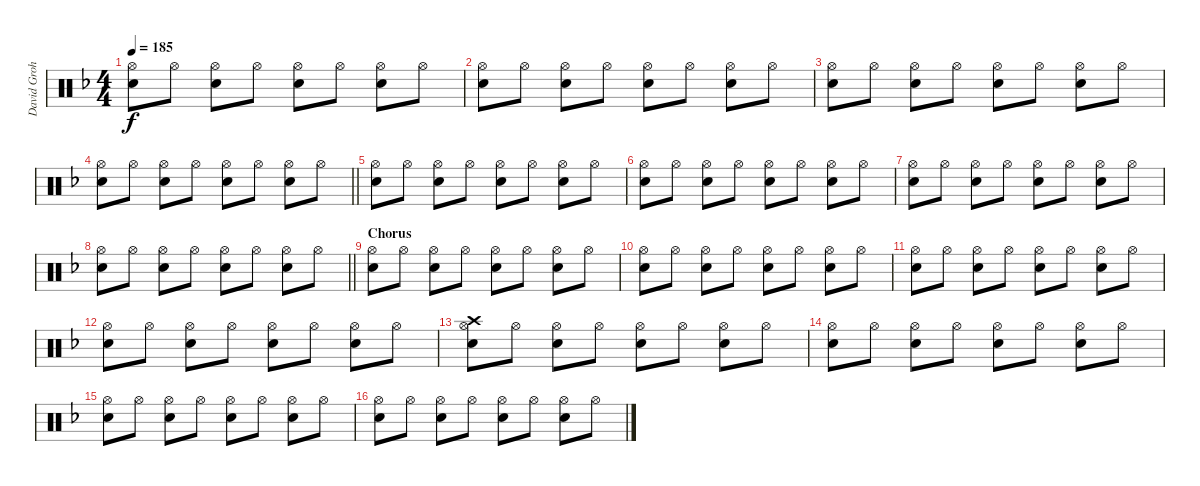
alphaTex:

\track ("David Grohl/Alfredo Ortiz" "David Groh") {instrument percussion}
\staff {score}
\articulation defaults
\ts (4 4)
\tempo 185
\clef neutral
\ks f
("Snare (hit) 2" "Hi-Hat (open)").8{dy f} "Hi-Hat (open)".8 ("Snare (hit) 2" "Hi-Hat (open)").8 "Hi-Hat (open)".8 ("Snare (hit) 2" "Hi-Hat (open)").8 "Hi-Hat (open)".8 ("Snare (hit) 2" "Hi-Hat (open)").8 "Hi-Hat (open)".8 |
("Snare (hit) 2" "Hi-Hat (open)").8 "Hi-Hat (open)".8 ("Snare (hit) 2" "Hi-Hat (open)").8 "Hi-Hat (open)".8 ("Snare (hit) 2" "Hi-Hat (open)").8 "Hi-Hat (open)".8 ("Snare (hit) 2" "Hi-Hat (open)").8 "Hi-Hat (open)".8 |
("Snare (hit) 2" "Hi-Hat (open)").8 "Hi-Hat (open)".8 ("Snare (hit) 2" "Hi-Hat (open)").8 "Hi-Hat (open)".8 ("Snare (hit) 2" "Hi-Hat (open)").8 "Hi-Hat (open)".8 ("Snare (hit) 2" "Hi-Hat (open)").8 "Hi-Hat (open)".8 |
\barLineRight lightlight
("Snare (hit) 2" "Hi-Hat (open)").8 "Hi-Hat (open)".8 ("Snare (hit) 2" "Hi-Hat (open)").8 "Hi-Hat (open)".8 ("Snare (hit) 2" "Hi-Hat (open)").8 "Hi-Hat (open)".8 ("Snare (hit) 2" "Hi-Hat (open)").8 "Hi-Hat (open)".8 |
("Snare (hit) 2" "Hi-Hat (open)").8 "Hi-Hat (open)".8 ("Snare (hit) 2" "Hi-Hat (open)").8 "Hi-Hat (open)".8 ("Snare (hit) 2" "Hi-Hat (open)").8 "Hi-Hat (open)".8 ("Snare (hit) 2" "Hi-Hat (open)").8 "Hi-Hat (open)".8 |
("Snare (hit) 2" "Hi-Hat (open)").8 "Hi-Hat (open)".8 ("Snare (hit) 2" "Hi-Hat (open)").8 "Hi-Hat (open)".8 ("Snare (hit) 2" "Hi-Hat (open)").8 "Hi-Hat (open)".8 ("Snare (hit) 2" "Hi-Hat (open)").8 "Hi-Hat (open)".8 |
("Snare (hit) 2" "Hi-Hat (open)").8 "Hi-Hat (open)".8 ("Snare (hit) 2" "Hi-Hat (open)").8 "Hi-Hat (open)".8 ("Snare (hit) 2" "Hi-Hat (open)").8 "Hi-Hat (open)".8 ("Snare (hit) 2" "Hi-Hat (open)").8 "Hi-Hat (open)".8 |
\barLineRight lightlight
("Snare (hit) 2" "Hi-Hat (open)").8 "Hi-Hat (open)".8 ("Snare (hit) 2" "Hi-Hat (open)").8 "Hi-Hat (open)".8 ("Snare (hit) 2" "Hi-Hat (open)").8 "Hi-Hat (open)".8 ("Snare (hit) 2" "Hi-Hat (open)").8 "Hi-Hat (open)".8 |
\section ("" "Chorus")
("Snare (hit) 2" "Hi-Hat (open)").8 "Hi-Hat (open)".8 ("Snare (hit) 2" "Hi-Hat (open)").8 "Hi-Hat (open)".8 ("Snare (hit) 2" "Hi-Hat (open)").8 "Hi-Hat (open)".8 ("Snare (hit) 2" "Hi-Hat (open)").8 "Hi-Hat (open)".8 |
("Snare (hit) 2" "Hi-Hat (open)").8 "Hi-Hat (open)".8 ("Snare (hit) 2" "Hi-Hat (open)").8 "Hi-Hat (open)".8 ("Snare (hit) 2" "Hi-Hat (open)").8 "Hi-Hat (open)".8 ("Snare (hit) 2" "Hi-Hat (open)").8 "Hi-Hat (open)".8 |
("Snare (hit) 2" "Hi-Hat (open)").8 "Hi-Hat (open)".8 ("Snare (hit) 2" "Hi-Hat (open)").8 "Hi-Hat (open)".8 ("Snare (hit) 2" "Hi-Hat (open)").8 "Hi-Hat (open)".8 ("Snare (hit) 2" "Hi-Hat (open)").8 "Hi-Hat (open)".8 |
("Snare (hit) 2" "Hi-Hat (open)").8 "Hi-Hat (open)".8 ("Snare (hit) 2" "Hi-Hat (open)").8 "Hi-Hat (open)".8 ("Snare (hit) 2" "Hi-Hat (open)").8 "Hi-Hat (open)".8 ("Snare (hit) 2" "Hi-Hat (open)").8 "Hi-Hat (open)".8 |
("Crash high (hit)" "Snare (hit) 2" "Hi-Hat (open)").8 "Hi-Hat (open)".8 ("Snare (hit) 2" "Hi-Hat (open)").8 "Hi-Hat (open)".8 ("Snare (hit) 2" "Hi-Hat (open)").8 "Hi-Hat (open)".8 ("Snare (hit) 2" "Hi-Hat (open)").8 "Hi-Hat (open)".8 |
("Snare (hit) 2" "Hi-Hat (open)").8 "Hi-Hat (open)".8 ("Snare (hit) 2" "Hi-Hat (open)").8 "Hi-Hat (open)".8 ("Snare (hit) 2" "Hi-Hat (open)").8 "Hi-Hat (open)".8 ("Snare (hit) 2" "Hi-Hat (open)").8 "Hi-Hat (open)".8 |
("Snare (hit) 2" "Hi-Hat (open)").8 "Hi-Hat (open)".8 ("Snare (hit) 2" "Hi-Hat (open)").8 "Hi-Hat (open)".8 ("Snare (hit) 2" "Hi-Hat (open)").8 "Hi-Hat (open)".8 ("Snare (hit) 2" "Hi-Hat (open)").8 "Hi-Hat (open)".8 |
("Snare (hit) 2" "Hi-Hat (open)").8 "Hi-Hat (open)".8 ("Snare (hit) 2" "Hi-Hat (open)").8 "Hi-Hat (open)".8 ("Snare (hit) 2" "Hi-Hat (open)").8 "Hi-Hat (open)".8 ("Snare (hit) 2" "Hi-Hat (open)").8 "Hi-Hat (open)".8
